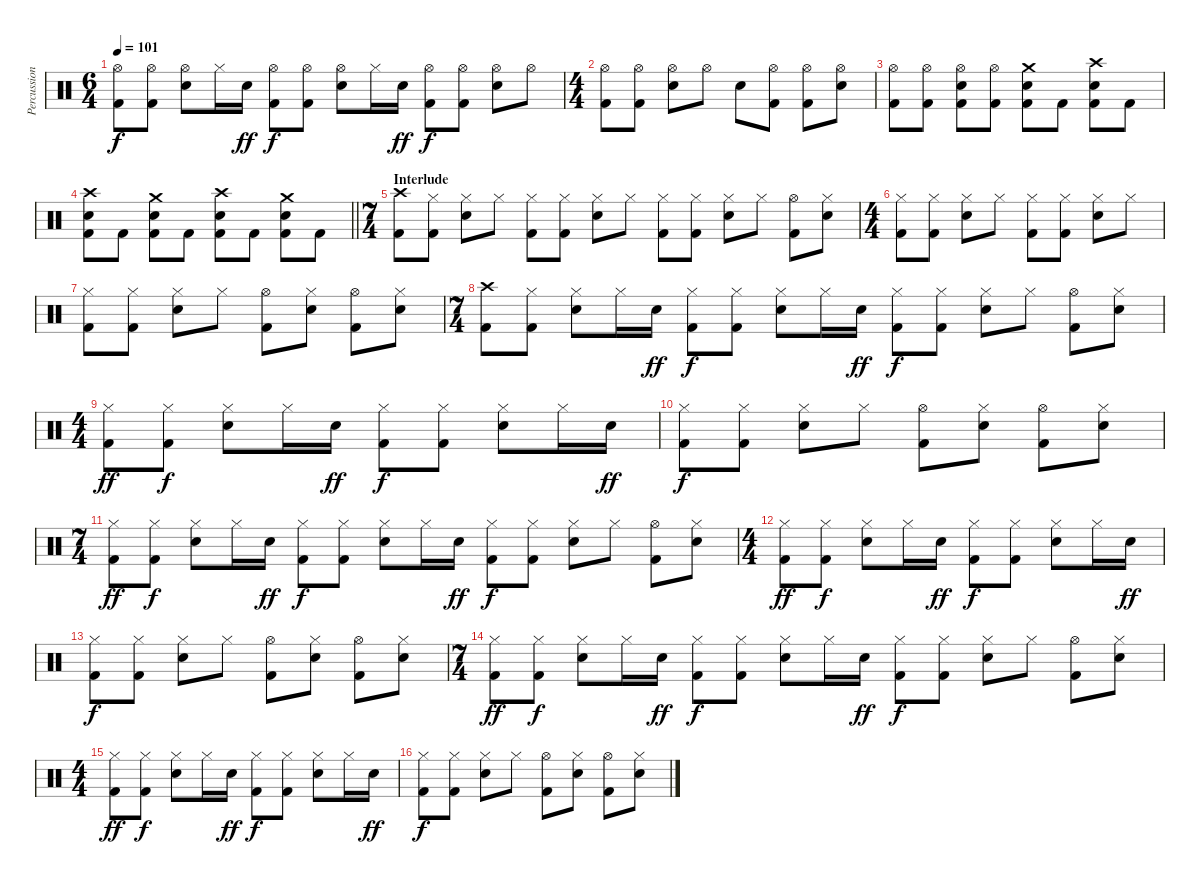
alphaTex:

\track ("Percussion" "Percussion") {instrument percussion}
\staff {score}
\articulation defaults
\ts (6 4)
\tempo 101
\clef neutral
\ks c
("Hi-Hat (open)" "Kick (hit) 2").8{dy f} ("Hi-Hat (open)" "Kick (hit) 2").8 ("Hi-Hat (open)" "Electric Snare (hit)").8 "Hi-Hat (closed)".16 "Electric Snare (hit)".16{dy ff} ("Hi-Hat (open)" "Kick (hit) 2").8{dy f} ("Hi-Hat (open)" "Kick (hit) 2").8 ("Hi-Hat (open)" "Electric Snare (hit)").8 "Hi-Hat (closed)".16 "Electric Snare (hit)".16{dy ff} ("Hi-Hat (open)" "Kick (hit) 2").8{dy f} ("Hi-Hat (open)" "Kick (hit) 2").8 ("Hi-Hat (open)" "Electric Snare (hit)").8 "Hi-Hat (open)".8 |
\ts (4 4)
("Hi-Hat (open)" "Kick (hit) 2").8 ("Hi-Hat (open)" "Kick (hit) 2").8 ("Hi-Hat (open)" "Electric Snare (hit)").8 "Hi-Hat (open)".8 "Electric Snare (hit)".8 ("Hi-Hat (open)" "Kick (hit) 2").8 ("Hi-Hat (open)" "Kick (hit) 2").8 ("Hi-Hat (open)" "Electric Snare (hit)").8 |
("Hi-Hat (open)" "Kick (hit) 2").8 ("Hi-Hat (open)" "Kick (hit) 2").8 ("Hi-Hat (open)" "Electric Snare (hit)" "Kick (hit) 2").8 ("Hi-Hat (open)" "Kick (hit) 2").8 ("Crash medium (hit)" "Electric Snare (hit)" "Kick (hit) 2").8 "Kick (hit) 2".8 ("Crash high (hit)" "Electric Snare (hit)" "Kick (hit) 2").8 "Kick (hit) 2".8 |
\barLineRight lightlight
("Crash high (hit)" "Electric Snare (hit)" "Kick (hit) 2").8 "Kick (hit) 2".8 ("Crash medium (hit)" "Electric Snare (hit)" "Kick (hit) 2").8 "Kick (hit) 2".8 ("Crash high (hit)" "Electric Snare (hit)" "Kick (hit) 2").8 "Kick (hit) 2".8 ("Crash medium (hit)" "Electric Snare (hit)" "Kick (hit) 2").8 "Kick (hit) 2".8 |
\ts (7 4)
\section ("" "Interlude")
("Crash high (hit)" "Kick (hit) 2").8 ("Hi-Hat (closed)" "Kick (hit) 2").8 ("Hi-Hat (closed)" "Electric Snare (hit)").8 "Hi-Hat (closed)".8 ("Hi-Hat (closed)" "Kick (hit) 2").8 ("Hi-Hat (closed)" "Kick (hit) 2").8 ("Hi-Hat (closed)" "Electric Snare (hit)").8 "Hi-Hat (closed)".8 ("Hi-Hat (closed)" "Kick (hit) 2").8 ("Hi-Hat (closed)" "Kick (hit) 2").8 ("Hi-Hat (closed)" "Electric Snare (hit)").8 "Hi-Hat (closed)".8 ("Hi-Hat (open)" "Kick (hit) 2").8 ("Hi-Hat (closed)" "Electric Snare (hit)").8 |
\ts (4 4)
("Hi-Hat (closed)" "Kick (hit) 2").8 ("Hi-Hat (closed)" "Kick (hit) 2").8 ("Hi-Hat (closed)" "Electric Snare (hit)").8 "Hi-Hat (closed)".8 ("Hi-Hat (closed)" "Kick (hit) 2").8 ("Hi-Hat (closed)" "Kick (hit) 2").8 ("Hi-Hat (closed)" "Electric Snare (hit)").8 "Hi-Hat (closed)".8 |
("Hi-Hat (closed)" "Kick (hit) 2").8 ("Hi-Hat (closed)" "Kick (hit) 2").8 ("Hi-Hat (closed)" "Electric Snare (hit)").8 "Hi-Hat (closed)".8 ("Hi-Hat (open)" "Kick (hit) 2").8 ("Hi-Hat (closed)" "Electric Snare (hit)").8 ("Hi-Hat (open)" "Kick (hit) 2").8 ("Hi-Hat (closed)" "Electric Snare (hit)").8 |
\ts (7 4)
("Crash high (hit)" "Kick (hit) 2").8 ("Hi-Hat (closed)" "Kick (hit) 2").8 ("Hi-Hat (closed)" "Electric Snare (hit)").8 "Hi-Hat (closed)".16 "Electric Snare (hit)".16{dy ff} ("Hi-Hat (closed)" "Kick (hit) 2").8{dy f} ("Hi-Hat (closed)" "Kick (hit) 2").8 ("Hi-Hat (closed)" "Electric Snare (hit)").8 "Hi-Hat (closed)".16 "Electric Snare (hit)".16{dy ff} ("Hi-Hat (closed)" "Kick (hit) 2").8{dy f} ("Hi-Hat (closed)" "Kick (hit) 2").8 ("Hi-Hat (closed)" "Electric Snare (hit)").8 "Hi-Hat (closed)".8 ("Hi-Hat (open)" "Kick (hit) 2").8 ("Hi-Hat (closed)" "Electric Snare (hit)").8 |
\ts (4 4)
("Hi-Hat (closed)" "Kick (hit) 2").8{dy ff} ("Hi-Hat (closed)" "Kick (hit) 2").8{dy f} ("Hi-Hat (closed)" "Electric Snare (hit)").8 "Hi-Hat (closed)".16 "Electric Snare (hit)".16{dy ff} ("Hi-Hat (closed)" "Kick (hit) 2").8{dy f} ("Hi-Hat (closed)" "Kick (hit) 2").8 ("Hi-Hat (closed)" "Electric Snare (hit)").8 "Hi-Hat (closed)".16 "Electric Snare (hit)".16{dy ff} |
("Hi-Hat (closed)" "Kick (hit) 2").8{dy f} ("Hi-Hat (closed)" "Kick (hit) 2").8 ("Hi-Hat (closed)" "Electric Snare (hit)").8 "Hi-Hat (closed)".8 ("Hi-Hat (open)" "Kick (hit) 2").8 ("Hi-Hat (closed)" "Electric Snare (hit)").8 ("Hi-Hat (open)" "Kick (hit) 2").8 ("Hi-Hat (closed)" "Electric Snare (hit)").8 |
\ts (7 4)
("Hi-Hat (closed)" "Kick (hit) 2").8{dy ff} ("Hi-Hat (closed)" "Kick (hit) 2").8{dy f} ("Hi-Hat (closed)" "Electric Snare (hit)").8 "Hi-Hat (closed)".16 "Electric Snare (hit)".16{dy ff} ("Hi-Hat (closed)" "Kick (hit) 2").8{dy f} ("Hi-Hat (closed)" "Kick (hit) 2").8 ("Hi-Hat (closed)" "Electric Snare (hit)").8 "Hi-Hat (closed)".16 "Electric Snare (hit)".16{dy ff} ("Hi-Hat (closed)" "Kick (hit) 2").8{dy f} ("Hi-Hat (closed)" "Kick (hit) 2").8 ("Hi-Hat (closed)" "Electric Snare (hit)").8 "Hi-Hat (closed)".8 ("Hi-Hat (open)" "Kick (hit) 2").8 ("Hi-Hat (closed)" "Electric Snare (hit)").8 |
\ts (4 4)
("Hi-Hat (closed)" "Kick (hit) 2").8{dy ff} ("Hi-Hat (closed)" "Kick (hit) 2").8{dy f} ("Hi-Hat (closed)" "Electric Snare (hit)").8 "Hi-Hat (closed)".16 "Electric Snare (hit)".16{dy ff} ("Hi-Hat (closed)" "Kick (hit) 2").8{dy f} ("Hi-Hat (closed)" "Kick (hit) 2").8 ("Hi-Hat (closed)" "Electric Snare (hit)").8 "Hi-Hat (closed)".16 "Electric Snare (hit)".16{dy ff} |
("Hi-Hat (closed)" "Kick (hit) 2").8{dy f} ("Hi-Hat (closed)" "Kick (hit) 2").8 ("Hi-Hat (closed)" "Electric Snare (hit)").8 "Hi-Hat (closed)".8 ("Hi-Hat (open)" "Kick (hit) 2").8 ("Hi-Hat (closed)" "Electric Snare (hit)").8 ("Hi-Hat (open)" "Kick (hit) 2").8 ("Hi-Hat (closed)" "Electric Snare (hit)").8 |
\ts (7 4)
("Hi-Hat (closed)" "Kick (hit) 2").8{dy ff} ("Hi-Hat (closed)" "Kick (hit) 2").8{dy f} ("Hi-Hat (closed)" "Electric Snare (hit)").8 "Hi-Hat (closed)".16 "Electric Snare (hit)".16{dy ff} ("Hi-Hat (closed)" "Kick (hit) 2").8{dy f} ("Hi-Hat (closed)" "Kick (hit) 2").8 ("Hi-Hat (closed)" "Electric Snare (hit)").8 "Hi-Hat (closed)".16 "Electric Snare (hit)".16{dy ff} ("Hi-Hat (closed)" "Kick (hit) 2").8{dy f} ("Hi-Hat (closed)" "Kick (hit) 2").8 ("Hi-Hat (closed)" "Electric Snare (hit)").8 "Hi-Hat (closed)".8 ("Hi-Hat (open)" "Kick (hit) 2").8 ("Hi-Hat (closed)" "Electric Snare (hit)").8 |
\ts (4 4)
("Hi-Hat (closed)" "Kick (hit) 2").8{dy ff} ("Hi-Hat (closed)" "Kick (hit) 2").8{dy f} ("Hi-Hat (closed)" "Electric Snare (hit)").8 "Hi-Hat (closed)".16 "Electric Snare (hit)".16{dy ff} ("Hi-Hat (closed)" "Kick (hit) 2").8{dy f} ("Hi-Hat (closed)" "Kick (hit) 2").8 ("Hi-Hat (closed)" "Electric Snare (hit)").8 "Hi-Hat (closed)".16 "Electric Snare (hit)".16{dy ff} |
("Hi-Hat (closed)" "Kick (hit) 2").8{dy f} ("Hi-Hat (closed)" "Kick (hit) 2").8 ("Hi-Hat (closed)" "Electric Snare (hit)").8 "Hi-Hat (closed)".8 ("Hi-Hat (open)" "Kick (hit) 2").8 ("Hi-Hat (closed)" "Electric Snare (hit)").8 ("Hi-Hat (open)" "Kick (hit) 2").8 ("Hi-Hat (closed)" "Electric Snare (hit)").8
